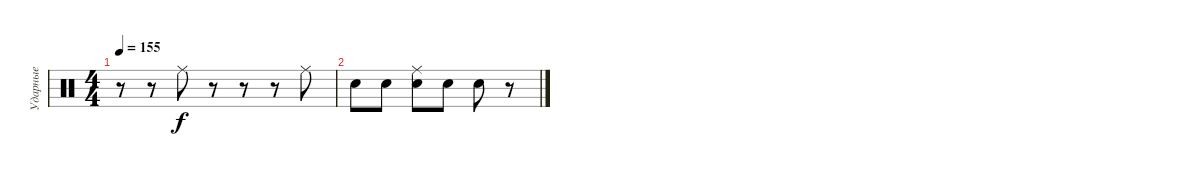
\track ("Ударные" "Ударные") {instrument percussion}
\staff {score}
\articulation defaults
\ts (4 4)
\tempo 155
\clef neutral
\ks c
r.8{dy f} r.8 "Ride (middle)".8 r.8 r.8 r.8 "Ride (middle)".8 |
"Electric Snare (hit)".8 "Electric Snare (hit)".8 ("Electric Snare (hit)" "Ride (middle)").8 "Electric Snare (hit)".8 "Electric Snare (hit)".8 r.8
